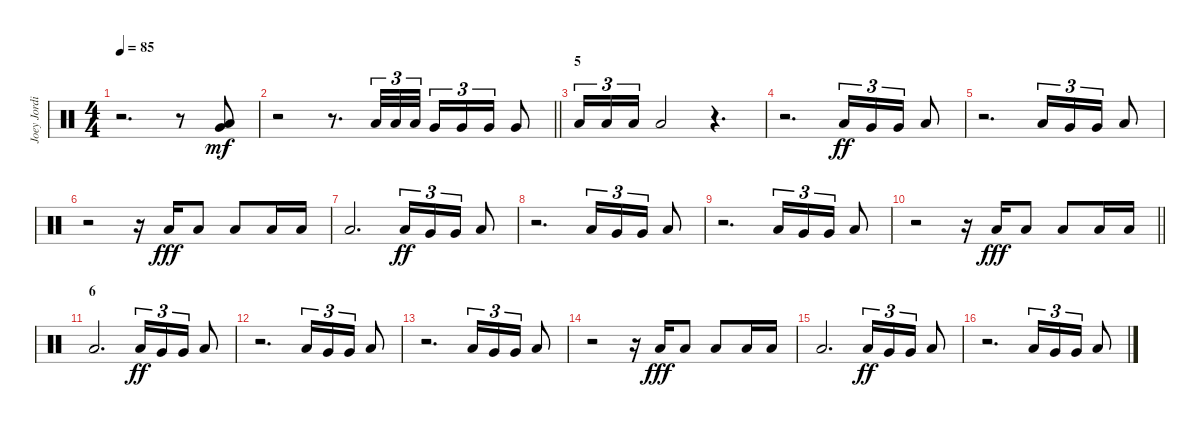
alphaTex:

\track ("Joey Jordison" "Joey Jordi") {instrument percussion}
\staff {score}
\articulation defaults
\ts (4 4)
\tempo 85
\clef neutral
\ks c
r.2{d dy ff} r.8 ("Very Low Tom (hit)" "Low Floor Tom (hit)").8{dy mf} |
\barLineRight lightlight
r.2 r.8{d} "Low Floor Tom (hit)".32{tu (3 2)} "Low Floor Tom (hit)".32{tu (3 2)} "Low Floor Tom (hit)".32{tu (3 2)} "Very Low Tom (hit)".16{tu (3 2)} "Very Low Tom (hit)".16{tu (3 2)} "Very Low Tom (hit)".16{tu (3 2)} "Very Low Tom (hit)".8 |
\section ("" "5")
"Low Floor Tom (hit)".16{tu (3 2)} "Low Floor Tom (hit)".16{tu (3 2)} "Low Floor Tom (hit)".16{tu (3 2)} "Low Floor Tom (hit)".2 r.4{d} |
r.2{d} "Low Tom (hit)".16{tu (3 2) dy ff} "Very Low Tom (hit)".16{tu (3 2)} "Very Low Tom (hit)".16{tu (3 2)} "Low Floor Tom (hit)".8 |
r.2{d} "Low Tom (hit)".16{tu (3 2)} "Very Low Tom (hit)".16{tu (3 2)} "Very Low Tom (hit)".16{tu (3 2)} "Low Floor Tom (hit)".8 |
r.2 r.16 "Low Floor Tom (hit)".16{dy fff} "Low Floor Tom (hit)".8 "Low Floor Tom (hit)".8 "Low Floor Tom (hit)".16 "Low Floor Tom (hit)".16 |
"Low Floor Tom (hit)".2{d} "Low Tom (hit)".16{tu (3 2) dy ff} "Very Low Tom (hit)".16{tu (3 2)} "Very Low Tom (hit)".16{tu (3 2)} "Low Floor Tom (hit)".8 |
r.2{d} "Low Tom (hit)".16{tu (3 2)} "Very Low Tom (hit)".16{tu (3 2)} "Very Low Tom (hit)".16{tu (3 2)} "Low Floor Tom (hit)".8 |
r.2{d} "Low Tom (hit)".16{tu (3 2)} "Very Low Tom (hit)".16{tu (3 2)} "Very Low Tom (hit)".16{tu (3 2)} "Low Floor Tom (hit)".8 |
\barLineRight lightlight
r.2 r.16 "Low Floor Tom (hit)".16{dy fff} "Low Floor Tom (hit)".8 "Low Floor Tom (hit)".8 "Low Floor Tom (hit)".16 "Low Floor Tom (hit)".16 |
\section ("" "6")
"Low Floor Tom (hit)".2{d} "Low Tom (hit)".16{tu (3 2) dy ff} "Very Low Tom (hit)".16{tu (3 2)} "Very Low Tom (hit)".16{tu (3 2)} "Low Floor Tom (hit)".8 |
r.2{d} "Low Tom (hit)".16{tu (3 2)} "Very Low Tom (hit)".16{tu (3 2)} "Very Low Tom (hit)".16{tu (3 2)} "Low Floor Tom (hit)".8 |
r.2{d} "Low Tom (hit)".16{tu (3 2)} "Very Low Tom (hit)".16{tu (3 2)} "Very Low Tom (hit)".16{tu (3 2)} "Low Floor Tom (hit)".8 |
r.2 r.16 "Low Floor Tom (hit)".16{dy fff} "Low Floor Tom (hit)".8 "Low Floor Tom (hit)".8 "Low Floor Tom (hit)".16 "Low Floor Tom (hit)".16 |
"Low Floor Tom (hit)".2{d} "Low Tom (hit)".16{tu (3 2) dy ff} "Very Low Tom (hit)".16{tu (3 2)} "Very Low Tom (hit)".16{tu (3 2)} "Low Floor Tom (hit)".8 |
r.2{d} "Low Tom (hit)".16{tu (3 2)} "Very Low Tom (hit)".16{tu (3 2)} "Very Low Tom (hit)".16{tu (3 2)} "Low Floor Tom (hit)".8
